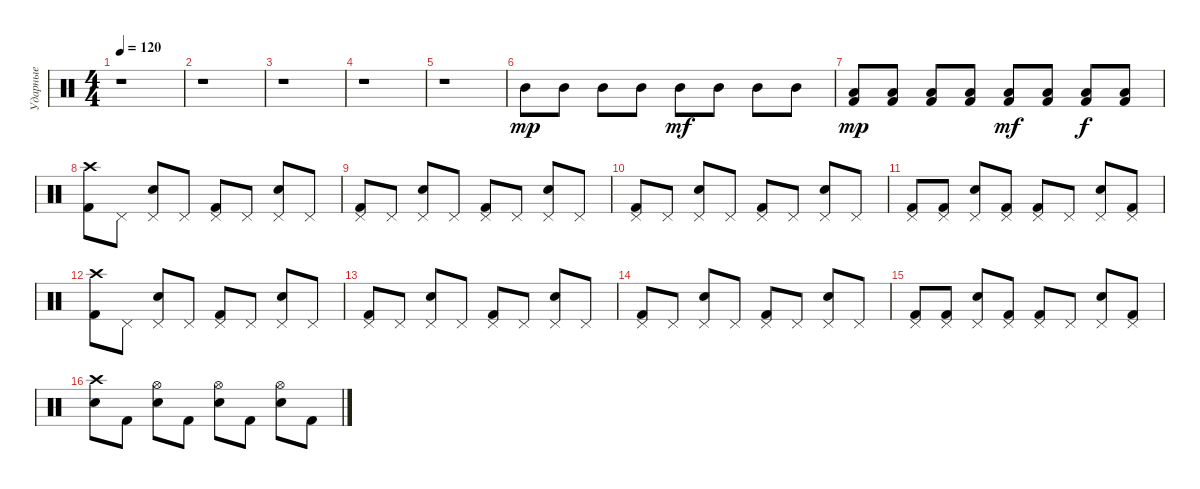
\track ("Ударные" "Ударные") {instrument percussion}
\staff {score}
\articulation defaults
\ts (4 4)
\tempo 120
\clef neutral
\ks c
r.1{dy f} |
r.1 |
r.1 |
r.1 |
r.1 |
"Mid Tom (hit)".8{dy mp} "Mid Tom (hit)".8 "Mid Tom (hit)".8 "Mid Tom (hit)".8 "Mid Tom (hit)".8{dy mf} "Mid Tom (hit)".8 "Mid Tom (hit)".8 "Mid Tom (hit)".8 |
("Low Floor Tom (hit)" "Kick (hit) 2").8{dy mp} ("Low Floor Tom (hit)" "Kick (hit) 2").8 ("Low Floor Tom (hit)" "Kick (hit) 2").8 ("Low Floor Tom (hit)" "Kick (hit) 2").8 ("Low Floor Tom (hit)" "Kick (hit) 2").8{dy mf} ("Low Floor Tom (hit)" "Kick (hit) 2").8 ("Low Floor Tom (hit)" "Kick (hit) 2").8{dy f} ("Low Floor Tom (hit)" "Kick (hit) 2").8 |
("Crash high (hit)" "Kick (hit) 2").8 "Pedal Hi-Hat (hit)".8 ("Pedal Hi-Hat (hit)" "Electric Snare (hit)").8 "Pedal Hi-Hat (hit)".8 ("Pedal Hi-Hat (hit)" "Kick (hit) 2").8 "Pedal Hi-Hat (hit)".8 ("Pedal Hi-Hat (hit)" "Electric Snare (hit)").8 "Pedal Hi-Hat (hit)".8 |
("Pedal Hi-Hat (hit)" "Kick (hit) 2").8 "Pedal Hi-Hat (hit)".8 ("Pedal Hi-Hat (hit)" "Electric Snare (hit)").8 "Pedal Hi-Hat (hit)".8 ("Pedal Hi-Hat (hit)" "Kick (hit) 2").8 "Pedal Hi-Hat (hit)".8 ("Pedal Hi-Hat (hit)" "Electric Snare (hit)").8 "Pedal Hi-Hat (hit)".8 |
("Pedal Hi-Hat (hit)" "Kick (hit) 2").8 "Pedal Hi-Hat (hit)".8 ("Pedal Hi-Hat (hit)" "Electric Snare (hit)").8 "Pedal Hi-Hat (hit)".8 ("Pedal Hi-Hat (hit)" "Kick (hit) 2").8 "Pedal Hi-Hat (hit)".8 ("Pedal Hi-Hat (hit)" "Electric Snare (hit)").8 "Pedal Hi-Hat (hit)".8 |
("Pedal Hi-Hat (hit)" "Kick (hit) 2").8 ("Pedal Hi-Hat (hit)" "Kick (hit) 2").8 ("Pedal Hi-Hat (hit)" "Electric Snare (hit)").8 ("Pedal Hi-Hat (hit)" "Kick (hit) 2").8 ("Pedal Hi-Hat (hit)" "Kick (hit) 2").8 "Pedal Hi-Hat (hit)".8 ("Pedal Hi-Hat (hit)" "Electric Snare (hit)").8 ("Pedal Hi-Hat (hit)" "Kick (hit) 2").8 |
("Crash high (hit)" "Kick (hit) 2").8 "Pedal Hi-Hat (hit)".8 ("Pedal Hi-Hat (hit)" "Electric Snare (hit)").8 "Pedal Hi-Hat (hit)".8 ("Pedal Hi-Hat (hit)" "Kick (hit) 2").8 "Pedal Hi-Hat (hit)".8 ("Pedal Hi-Hat (hit)" "Electric Snare (hit)").8 "Pedal Hi-Hat (hit)".8 |
("Pedal Hi-Hat (hit)" "Kick (hit) 2").8 "Pedal Hi-Hat (hit)".8 ("Pedal Hi-Hat (hit)" "Electric Snare (hit)").8 "Pedal Hi-Hat (hit)".8 ("Pedal Hi-Hat (hit)" "Kick (hit) 2").8 "Pedal Hi-Hat (hit)".8 ("Pedal Hi-Hat (hit)" "Electric Snare (hit)").8 "Pedal Hi-Hat (hit)".8 |
("Pedal Hi-Hat (hit)" "Kick (hit) 2").8 "Pedal Hi-Hat (hit)".8 ("Pedal Hi-Hat (hit)" "Electric Snare (hit)").8 "Pedal Hi-Hat (hit)".8 ("Pedal Hi-Hat (hit)" "Kick (hit) 2").8 "Pedal Hi-Hat (hit)".8 ("Pedal Hi-Hat (hit)" "Electric Snare (hit)").8 "Pedal Hi-Hat (hit)".8 |
("Pedal Hi-Hat (hit)" "Kick (hit) 2").8 ("Pedal Hi-Hat (hit)" "Kick (hit) 2").8 ("Pedal Hi-Hat (hit)" "Electric Snare (hit)").8 ("Pedal Hi-Hat (hit)" "Kick (hit) 2").8 ("Pedal Hi-Hat (hit)" "Kick (hit) 2").8 "Pedal Hi-Hat (hit)".8 ("Pedal Hi-Hat (hit)" "Electric Snare (hit)").8 ("Pedal Hi-Hat (hit)" "Kick (hit) 2").8 |
("Crash high (hit)" "Electric Snare (hit)").8 "Kick (hit) 2".8 ("Hi-Hat (open)" "Electric Snare (hit)").8 "Kick (hit) 2".8 ("Hi-Hat (open)" "Electric Snare (hit)").8 "Kick (hit) 2".8 ("Hi-Hat (open)" "Electric Snare (hit)").8 "Kick (hit) 2".8
